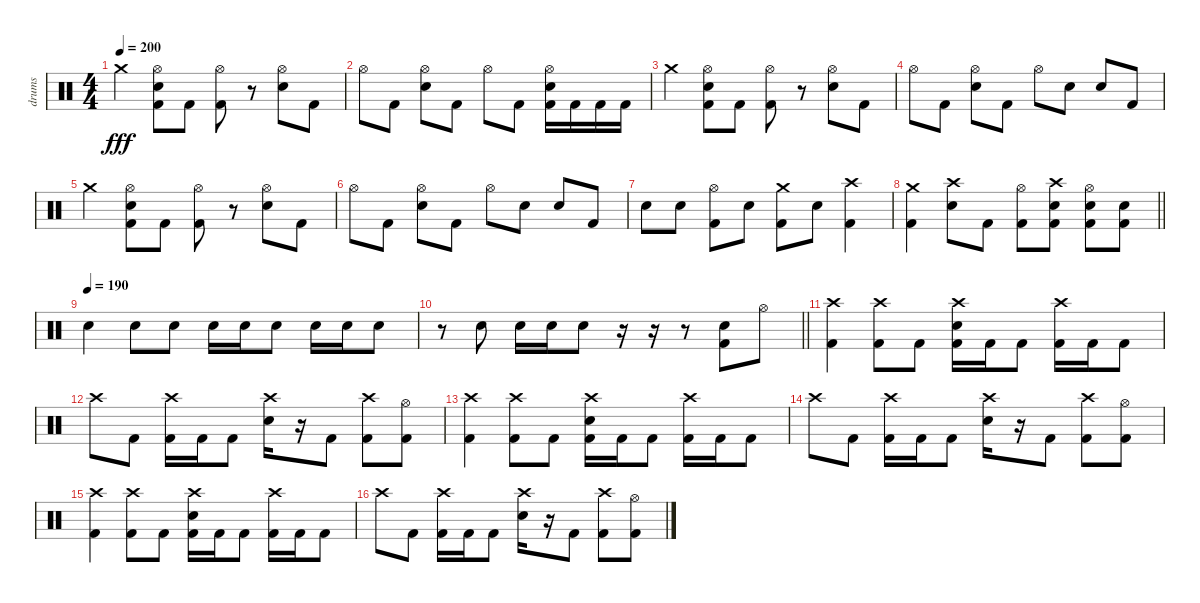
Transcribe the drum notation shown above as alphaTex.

\track ("drums" "drums") {instrument percussion}
\staff {score}
\articulation defaults
\ts (4 4)
\tempo 200
\clef neutral
\ks c "Crash medium (hit)".4{dy fff}
("Hi-Hat (open)" "Electric Snare (hit)" "Kick (hit) 2").8 "Kick (hit) 2".8 ("Hi-Hat (open)" "Kick (hit) 2").8 r.8 ("Hi-Hat (open)" "Electric Snare (hit)").8 "Kick (hit) 2".8 |
"Hi-Hat (open)".8 "Kick (hit) 2".8 ("Hi-Hat (open)" "Electric Snare (hit)").8 "Kick (hit) 2".8 "Hi-Hat (open)".8 "Kick (hit) 2".8 ("Hi-Hat (open)" "Electric Snare (hit)" "Kick (hit) 2").16 "Kick (hit) 2".16 "Kick (hit) 2".16 "Kick (hit) 2".16 |
"Crash medium (hit)".4 ("Hi-Hat (open)" "Electric Snare (hit)" "Kick (hit) 2").8 "Kick (hit) 2".8 ("Hi-Hat (open)" "Kick (hit) 2").8 r.8 ("Hi-Hat (open)" "Electric Snare (hit)").8 "Kick (hit) 2".8 |
"Hi-Hat (open)".8 "Kick (hit) 2".8 ("Hi-Hat (open)" "Electric Snare (hit)").8 "Kick (hit) 2".8 "Hi-Hat (open)".8 "Electric Snare (hit)".8 "Electric Snare (hit)".8 "Kick (hit) 2".8 |
"Crash medium (hit)".4 ("Hi-Hat (open)" "Electric Snare (hit)" "Kick (hit) 2").8 "Kick (hit) 2".8 ("Hi-Hat (open)" "Kick (hit) 2").8 r.8 ("Hi-Hat (open)" "Electric Snare (hit)").8 "Kick (hit) 2".8 |
"Hi-Hat (open)".8 "Kick (hit) 2".8 ("Hi-Hat (open)" "Electric Snare (hit)").8 "Kick (hit) 2".8 "Hi-Hat (open)".8 "Electric Snare (hit)".8 "Electric Snare (hit)".8 "Kick (hit) 2".8 |
"Electric Snare (hit)".8 "Electric Snare (hit)".8 ("Hi-Hat (open)" "Kick (hit) 2").8 "Electric Snare (hit)".8 ("Crash medium (hit)" "Kick (hit) 2").8 "Electric Snare (hit)".8 ("Crash high (hit)" "Kick (hit) 2").4 |
\barLineRight lightlight
("Crash medium (hit)" "Kick (hit) 2").4 ("Crash high (hit)" "Electric Snare (hit)").8 "Kick (hit) 2".8 ("Hi-Hat (open)" "Kick (hit) 2").8 ("Crash high (hit)" "Electric Snare (hit)" "Kick (hit) 2").8 ("Hi-Hat (open)" "Electric Snare (hit)" "Kick (hit) 2").8 ("Electric Snare (hit)" "Kick (hit) 2").8 |
\section ("" "")
\tempo (190)
"Electric Snare (hit)".4 "Electric Snare (hit)".8 "Electric Snare (hit)".8 "Electric Snare (hit)".16 "Electric Snare (hit)".16 "Electric Snare (hit)".8 "Electric Snare (hit)".16 "Electric Snare (hit)".16 "Electric Snare (hit)".8 |
\barLineRight lightlight
r.8 "Electric Snare (hit)".8 "Electric Snare (hit)".16 "Electric Snare (hit)".16 "Electric Snare (hit)".8 r.16 r.16 r.8 ("Electric Snare (hit)" "Kick (hit) 2").8 "Hi-Hat (open)".8 |
\section ("" "")
("Crash high (hit)" "Kick (hit) 2").4 ("Crash high (hit)" "Kick (hit) 2").8 "Kick (hit) 2".8 ("Crash high (hit)" "Electric Snare (hit)" "Kick (hit) 2").16 "Kick (hit) 2".16 "Kick (hit) 2".8 ("Crash high (hit)" "Kick (hit) 2").16 "Kick (hit) 2".16 "Kick (hit) 2".8 |
"Crash high (hit)".8 "Kick (hit) 2".8 ("Crash high (hit)" "Kick (hit) 2").16 "Kick (hit) 2".16 "Kick (hit) 2".8 ("Crash high (hit)" "Electric Snare (hit)").16 r.16 "Kick (hit) 2".8 ("Crash high (hit)" "Kick (hit) 2").8 ("Hi-Hat (open)" "Kick (hit) 2").8 |
("Crash high (hit)" "Kick (hit) 2").4 ("Crash high (hit)" "Kick (hit) 2").8 "Kick (hit) 2".8 ("Crash high (hit)" "Electric Snare (hit)" "Kick (hit) 2").16 "Kick (hit) 2".16 "Kick (hit) 2".8 ("Crash high (hit)" "Kick (hit) 2").16 "Kick (hit) 2".16 "Kick (hit) 2".8 |
"Crash high (hit)".8 "Kick (hit) 2".8 ("Crash high (hit)" "Kick (hit) 2").16 "Kick (hit) 2".16 "Kick (hit) 2".8 ("Crash high (hit)" "Electric Snare (hit)").16 r.16 "Kick (hit) 2".8 ("Crash high (hit)" "Kick (hit) 2").8 ("Hi-Hat (open)" "Kick (hit) 2").8 |
("Crash high (hit)" "Kick (hit) 2").4 ("Crash high (hit)" "Kick (hit) 2").8 "Kick (hit) 2".8 ("Crash high (hit)" "Electric Snare (hit)" "Kick (hit) 2").16 "Kick (hit) 2".16 "Kick (hit) 2".8 ("Crash high (hit)" "Kick (hit) 2").16 "Kick (hit) 2".16 "Kick (hit) 2".8 |
"Crash high (hit)".8 "Kick (hit) 2".8 ("Crash high (hit)" "Kick (hit) 2").16 "Kick (hit) 2".16 "Kick (hit) 2".8 ("Crash high (hit)" "Electric Snare (hit)").16 r.16 "Kick (hit) 2".8 ("Crash high (hit)" "Kick (hit) 2").8 ("Hi-Hat (open)" "Kick (hit) 2").8
